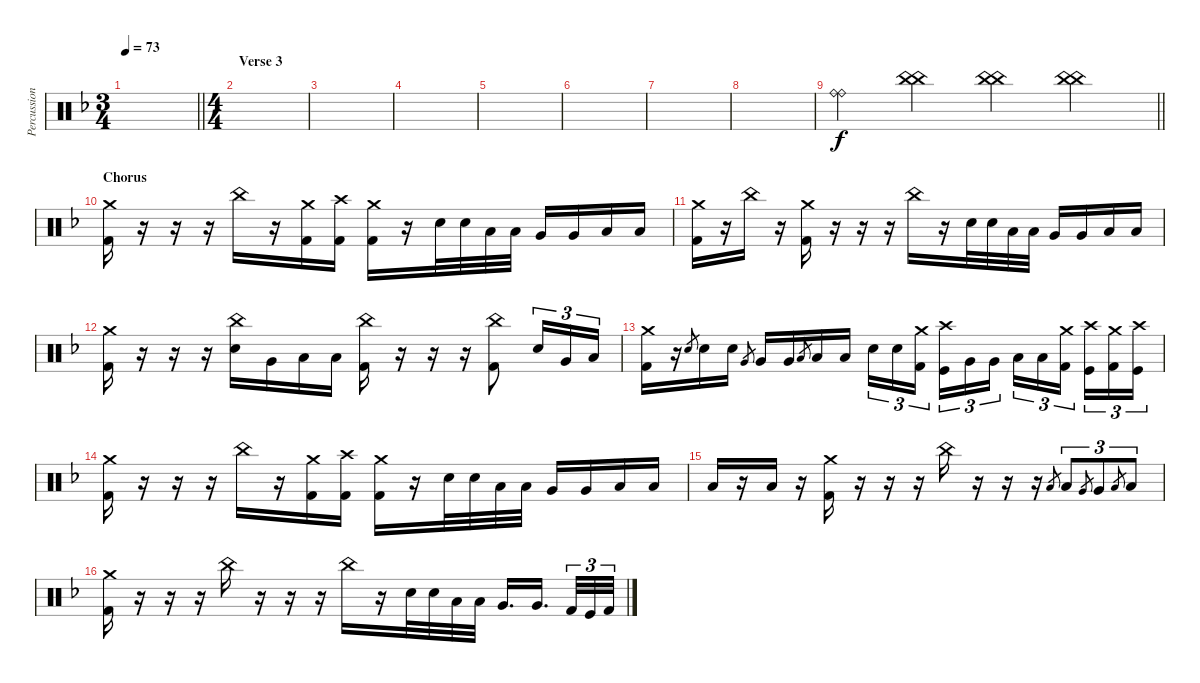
\track ("Percussion" "Percussion") {instrument percussion}
\staff {score}
\articulation defaults
\ts (3 4)
\tempo 73
\clef neutral
\barLineRight lightlight
\ks f
|
\ts (4 4)
\section ("" "Verse 3")
|
|
|
|
|
|
|
\barLineRight lightlight
("Ride (bell)" "Ride (bell)").4 ("China (hit)" "China (hit)").4 ("China (hit)" "China (hit)").4 ("China (hit)" "China (hit)").4 |
\section ("" "Chorus")
("Crash medium (hit)" "Kick (hit) 2").16 r.16 r.16 r.16 "China (hit)".16 r.16 ("Crash medium (hit)" "Kick (hit) 2").16 ("Crash high (hit)" "Kick (hit) 2").16 ("Crash medium (hit)" "Kick (hit) 2").16 r.16 "Electric Snare (hit)".32 "Electric Snare (hit)".32 "Low Tom (hit)".32 "Low Tom (hit)".32 "Very Low Tom (hit)".16 "Very Low Tom (hit)".16 "Low Floor Tom (hit)".16 "Low Floor Tom (hit)".16 |
("Crash medium (hit)" "Kick (hit) 2").16 r.16 "China (hit)".16 r.16 ("Crash medium (hit)" "Kick (hit) 2").16 r.16 r.16 r.16 "China (hit)".16 r.16 "Electric Snare (hit)".32 "Electric Snare (hit)".32 "Low Tom (hit)".32 "Low Tom (hit)".32 "Very Low Tom (hit)".16 "Very Low Tom (hit)".16 "Low Floor Tom (hit)".16 "Low Floor Tom (hit)".16 |
("Crash medium (hit)" "Kick (hit) 2").16 r.16 r.16 r.16 ("China (hit)" "Electric Snare (hit)").16 "Very Low Tom (hit)".16 "Low Floor Tom (hit)".16 "Low Floor Tom (hit)".16 ("China (hit)" "Kick (hit) 2").16 r.16 r.16 r.16 ("China (hit)" "Kick (hit) 2").8 "Electric Snare (hit)".16{tu (3 2)} "Very Low Tom (hit)".16{tu (3 2)} "Low Floor Tom (hit)".16{tu (3 2)} |
("Crash medium (hit)" "Kick (hit) 2").16 r.16 "Electric Snare (hit)".8{gr} "Electric Snare (hit)".16 "Electric Snare (hit)".16 "Very Low Tom (hit)".8{gr} "Very Low Tom (hit)".16 "Very Low Tom (hit)".16 "Low Floor Tom (hit)".8{gr} "Low Floor Tom (hit)".16 "Low Floor Tom (hit)".16 "Electric Snare (hit)".16{tu (3 2)} "Electric Snare (hit)".16{tu (3 2)} ("Crash medium (hit)" "Kick (hit) 2").16{tu (3 2) beam splitsecondary} ("Crash high (hit)" "Kick (hit)").16{tu (3 2)} "Very Low Tom (hit)".16{tu (3 2)} "Very Low Tom (hit)".16{tu (3 2)} "Low Floor Tom (hit)".16{tu (3 2)} "Low Floor Tom (hit)".16{tu (3 2)} ("Crash medium (hit)" "Kick (hit) 2").16{tu (3 2) beam splitsecondary} ("Crash high (hit)" "Kick (hit)").16{tu (3 2)} ("Crash medium (hit)" "Kick (hit) 2").16{tu (3 2)} ("Crash high (hit)" "Kick (hit)").16{tu (3 2)} |
("Crash medium (hit)" "Kick (hit) 2").16 r.16 r.16 r.16 "China (hit)".16 r.16 ("Crash medium (hit)" "Kick (hit) 2").16 ("Crash high (hit)" "Kick (hit) 2").16 ("Crash medium (hit)" "Kick (hit) 2").16 r.16 "Electric Snare (hit)".32 "Electric Snare (hit)".32 "Low Tom (hit)".32 "Low Tom (hit)".32 "Very Low Tom (hit)".16 "Very Low Tom (hit)".16 "Low Floor Tom (hit)".16 "Low Floor Tom (hit)".16 |
"Low Floor Tom (hit)".16 r.16 "Low Floor Tom (hit)".16 r.16 ("Crash medium (hit)" "Kick (hit) 2").16 r.16 r.16 r.16 "China (hit)".16 r.16 r.16 r.16 "Low Tom (hit)".8{gr} "Low Tom (hit)".8{tu (3 2)} "Very Low Tom (hit)".8{gr} "Very Low Tom (hit)".8{tu (3 2)} "Low Floor Tom (hit)".8{gr} "Low Floor Tom (hit)".8{tu (3 2)} |
("Crash medium (hit)" "Kick (hit) 2").16 r.16 r.16 r.16 "China (hit)".16 r.16 r.16 r.16 "China (hit)".16 r.16 "Electric Snare (hit)".32 "Electric Snare (hit)".32 "Low Tom (hit)".32 "Low Tom (hit)".32 "Very Low Tom (hit)".16{d} "Very Low Tom (hit)".16{d beam splitsecondary} "Kick (hit) 2".32{tu (3 2)} "Kick (hit)".32{tu (3 2)} "Kick (hit) 2".32{tu (3 2)}
